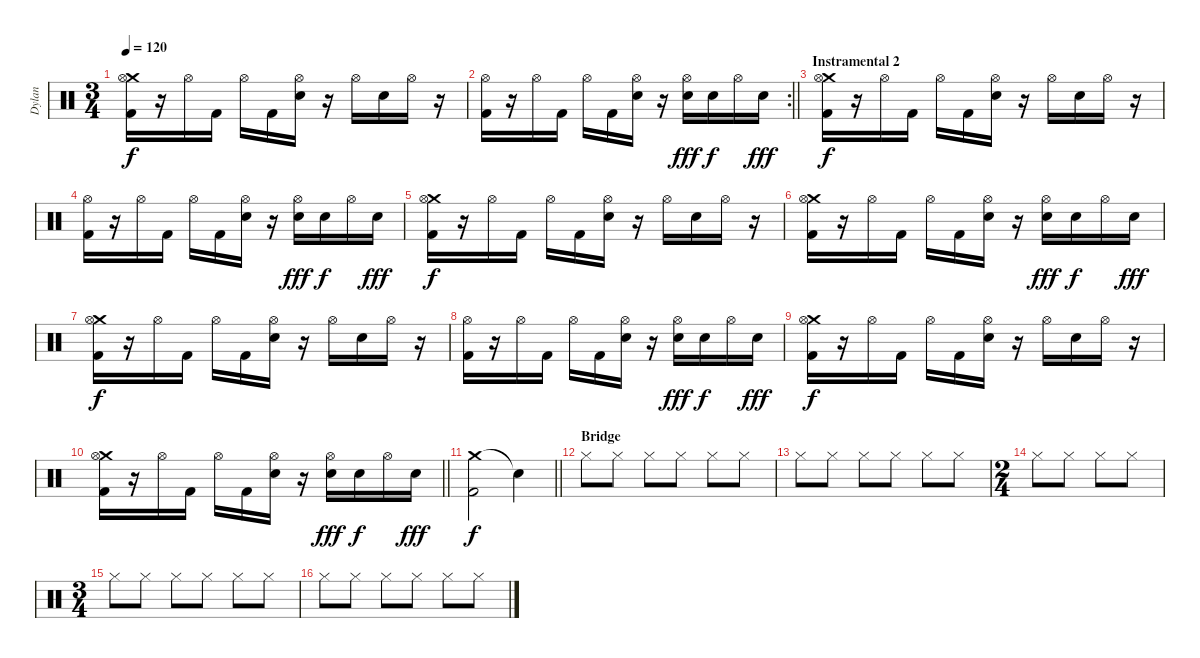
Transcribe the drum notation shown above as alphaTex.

\track ("Dylan" "Dylan") {instrument percussion}
\staff {score}
\articulation defaults
\ts (3 4)
\tempo 120
\clef neutral
\ks c
("Crash medium (hit)" "Hi-Hat (open)" "Kick (hit) 2").16{dy f} r.16 "Hi-Hat (open)".16 "Kick (hit) 2".16 "Hi-Hat (open)".16 "Kick (hit) 2".16 ("Hi-Hat (open)" "Electric Snare (hit)").16 r.16 "Hi-Hat (open)".16 "Electric Snare (hit)".16 "Hi-Hat (open)".16 r.16 |
\rc 2
\barLineRight lightlight
("Hi-Hat (open)" "Kick (hit) 2").16 r.16 "Hi-Hat (open)".16 "Kick (hit) 2".16 "Hi-Hat (open)".16 "Kick (hit) 2".16 ("Hi-Hat (open)" "Electric Snare (hit)").16 r.16 ("Hi-Hat (open)" "Electric Snare (hit)").16{dy fff} "Electric Snare (hit)".16{dy f} "Hi-Hat (open)".16 "Electric Snare (hit)".16{dy fff} |
\section ("" "Instramental 2")
("Crash medium (hit)" "Hi-Hat (open)" "Kick (hit) 2").16{dy f} r.16 "Hi-Hat (open)".16 "Kick (hit) 2".16 "Hi-Hat (open)".16 "Kick (hit) 2".16 ("Hi-Hat (open)" "Electric Snare (hit)").16 r.16 "Hi-Hat (open)".16 "Electric Snare (hit)".16 "Hi-Hat (open)".16 r.16 |
("Hi-Hat (open)" "Kick (hit) 2").16 r.16 "Hi-Hat (open)".16 "Kick (hit) 2".16 "Hi-Hat (open)".16 "Kick (hit) 2".16 ("Hi-Hat (open)" "Electric Snare (hit)").16 r.16 ("Hi-Hat (open)" "Electric Snare (hit)").16{dy fff} "Electric Snare (hit)".16{dy f} "Hi-Hat (open)".16 "Electric Snare (hit)".16{dy fff} |
("Crash medium (hit)" "Hi-Hat (open)" "Kick (hit) 2").16{dy f} r.16 "Hi-Hat (open)".16 "Kick (hit) 2".16 "Hi-Hat (open)".16 "Kick (hit) 2".16 ("Hi-Hat (open)" "Electric Snare (hit)").16 r.16 "Hi-Hat (open)".16 "Electric Snare (hit)".16 "Hi-Hat (open)".16 r.16 |
("Crash medium (hit)" "Hi-Hat (open)" "Kick (hit) 2").16 r.16 "Hi-Hat (open)".16 "Kick (hit) 2".16 "Hi-Hat (open)".16 "Kick (hit) 2".16 ("Hi-Hat (open)" "Electric Snare (hit)").16 r.16 ("Hi-Hat (open)" "Electric Snare (hit)").16{dy fff} "Electric Snare (hit)".16{dy f} "Hi-Hat (open)".16 "Electric Snare (hit)".16{dy fff} |
("Crash medium (hit)" "Hi-Hat (open)" "Kick (hit) 2").16{dy f} r.16 "Hi-Hat (open)".16 "Kick (hit) 2".16 "Hi-Hat (open)".16 "Kick (hit) 2".16 ("Hi-Hat (open)" "Electric Snare (hit)").16 r.16 "Hi-Hat (open)".16 "Electric Snare (hit)".16 "Hi-Hat (open)".16 r.16 |
("Hi-Hat (open)" "Kick (hit) 2").16 r.16 "Hi-Hat (open)".16 "Kick (hit) 2".16 "Hi-Hat (open)".16 "Kick (hit) 2".16 ("Hi-Hat (open)" "Electric Snare (hit)").16 r.16 ("Hi-Hat (open)" "Electric Snare (hit)").16{dy fff} "Electric Snare (hit)".16{dy f} "Hi-Hat (open)".16 "Electric Snare (hit)".16{dy fff} |
("Crash medium (hit)" "Hi-Hat (open)" "Kick (hit) 2").16{dy f} r.16 "Hi-Hat (open)".16 "Kick (hit) 2".16 "Hi-Hat (open)".16 "Kick (hit) 2".16 ("Hi-Hat (open)" "Electric Snare (hit)").16 r.16 "Hi-Hat (open)".16 "Electric Snare (hit)".16 "Hi-Hat (open)".16 r.16 |
\barLineRight lightlight
("Crash medium (hit)" "Hi-Hat (open)" "Kick (hit) 2").16 r.16 "Hi-Hat (open)".16 "Kick (hit) 2".16 "Hi-Hat (open)".16 "Kick (hit) 2".16 ("Hi-Hat (open)" "Electric Snare (hit)").16 r.16 ("Hi-Hat (open)" "Electric Snare (hit)").16{dy fff} "Electric Snare (hit)".16{dy f} "Hi-Hat (open)".16 "Electric Snare (hit)".16{dy fff} |
\barLineRight lightlight
("Crash medium (hit)" "Kick (hit) 2").2{dy f} "Snare (hit)"{t}.4 |
\section ("" "Bridge")
"Hi-Hat (closed)".8 "Hi-Hat (closed)".8 "Hi-Hat (closed)".8 "Hi-Hat (closed)".8 "Hi-Hat (closed)".8 "Hi-Hat (closed)".8 |
"Hi-Hat (closed)".8 "Hi-Hat (closed)".8 "Hi-Hat (closed)".8 "Hi-Hat (closed)".8 "Hi-Hat (closed)".8 "Hi-Hat (closed)".8 |
\ts (2 4)
"Hi-Hat (closed)".8 "Hi-Hat (closed)".8 "Hi-Hat (closed)".8 "Hi-Hat (closed)".8 |
\ts (3 4)
"Hi-Hat (closed)".8 "Hi-Hat (closed)".8 "Hi-Hat (closed)".8 "Hi-Hat (closed)".8 "Hi-Hat (closed)".8 "Hi-Hat (closed)".8 |
"Hi-Hat (closed)".8 "Hi-Hat (closed)".8 "Hi-Hat (closed)".8 "Hi-Hat (closed)".8 "Hi-Hat (closed)".8 "Hi-Hat (closed)".8
